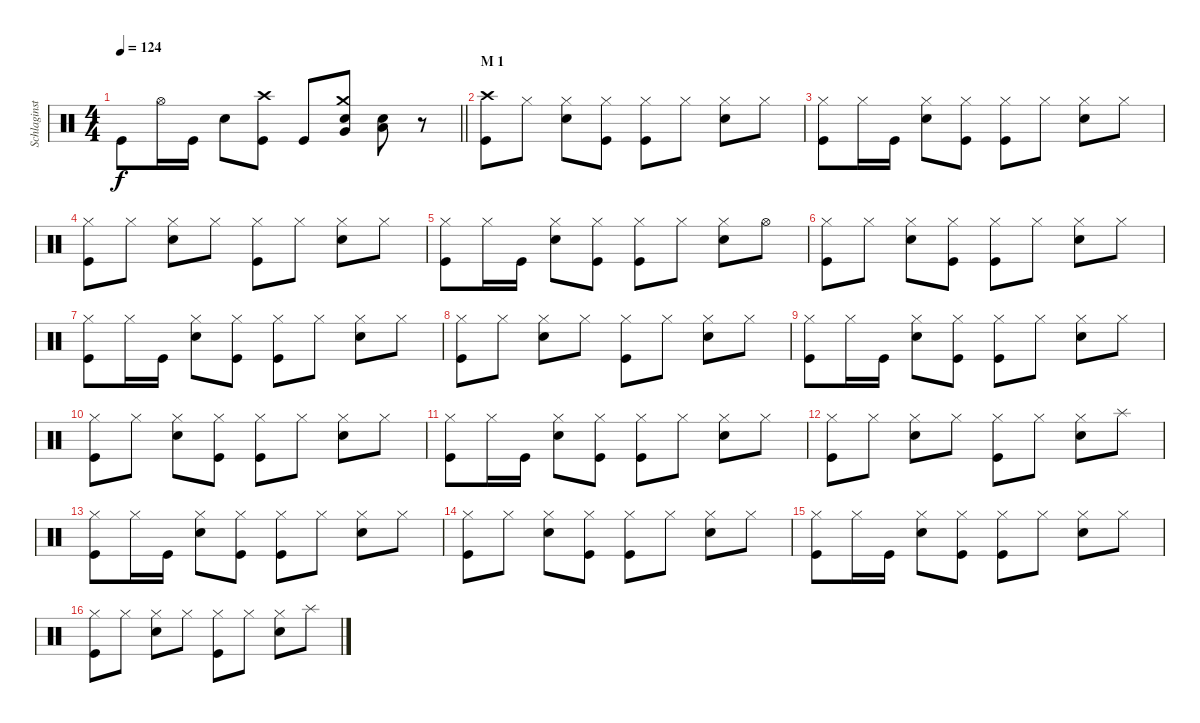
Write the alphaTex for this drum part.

\track ("Schlaginstrumente - Auswahl" "Schlaginst") {instrument percussion}
\staff {score}
\articulation defaults
\ts (4 4)
\tempo 124
\clef neutral
\barLineRight lightlight
\ks c "Kick (hit)".8{dy f} "Hi-Hat (open)".16 "Kick (hit)".16 "Snare (hit) 2".8
("Crash high (hit)" "Kick (hit)").8 "Kick (hit)".8 ("Crash medium (hit)" "Very Low Tom (hit)" "Snare (hit) 2").8 ("Low Floor Tom (hit)" "Snare (hit) 2").8 r.8 |
\section ("" "M 1")
("Crash high (hit)" "Kick (hit)").8 "Hi-Hat (closed)".8 ("Hi-Hat (closed)" "Snare (hit) 2").8 ("Hi-Hat (closed)" "Kick (hit)").8 ("Hi-Hat (closed)" "Kick (hit)").8 "Hi-Hat (closed)".8 ("Hi-Hat (closed)" "Snare (hit) 2").8 "Hi-Hat (closed)".8 |
("Hi-Hat (closed)" "Kick (hit)").8 "Hi-Hat (closed)".16 "Kick (hit)".16 ("Hi-Hat (closed)" "Snare (hit) 2").8 ("Hi-Hat (closed)" "Kick (hit)").8 ("Hi-Hat (closed)" "Kick (hit)").8 "Hi-Hat (closed)".8 ("Hi-Hat (closed)" "Snare (hit) 2").8 "Hi-Hat (closed)".8 |
("Hi-Hat (closed)" "Kick (hit)").8 "Hi-Hat (closed)".8 ("Hi-Hat (closed)" "Snare (hit) 2").8 "Hi-Hat (closed)".8 ("Hi-Hat (closed)" "Kick (hit)").8 "Hi-Hat (closed)".8 ("Hi-Hat (closed)" "Snare (hit) 2").8 "Hi-Hat (closed)".8 |
("Hi-Hat (closed)" "Kick (hit)").8 "Hi-Hat (closed)".16 "Kick (hit)".16 ("Hi-Hat (closed)" "Snare (hit) 2").8 ("Hi-Hat (closed)" "Kick (hit)").8 ("Hi-Hat (closed)" "Kick (hit)").8 "Hi-Hat (closed)".8 ("Hi-Hat (closed)" "Snare (hit) 2").8 "Hi-Hat (open)".8 |
("Hi-Hat (closed)" "Kick (hit)").8 "Hi-Hat (closed)".8 ("Hi-Hat (closed)" "Snare (hit) 2").8 ("Hi-Hat (closed)" "Kick (hit)").8 ("Hi-Hat (closed)" "Kick (hit)").8 "Hi-Hat (closed)".8 ("Hi-Hat (closed)" "Snare (hit) 2").8 "Hi-Hat (closed)".8 |
("Hi-Hat (closed)" "Kick (hit)").8 "Hi-Hat (closed)".16 "Kick (hit)".16 ("Hi-Hat (closed)" "Snare (hit) 2").8 ("Hi-Hat (closed)" "Kick (hit)").8 ("Hi-Hat (closed)" "Kick (hit)").8 "Hi-Hat (closed)".8 ("Hi-Hat (closed)" "Snare (hit) 2").8 "Hi-Hat (closed)".8 |
("Hi-Hat (closed)" "Kick (hit)").8 "Hi-Hat (closed)".8 ("Hi-Hat (closed)" "Snare (hit) 2").8 "Hi-Hat (closed)".8 ("Hi-Hat (closed)" "Kick (hit)").8 "Hi-Hat (closed)".8 ("Hi-Hat (closed)" "Snare (hit) 2").8 "Hi-Hat (closed)".8 |
("Hi-Hat (closed)" "Kick (hit)").8 "Hi-Hat (closed)".16 "Kick (hit)".16 ("Hi-Hat (closed)" "Snare (hit) 2").8 ("Hi-Hat (closed)" "Kick (hit)").8 ("Hi-Hat (closed)" "Kick (hit)").8 "Hi-Hat (closed)".8 ("Hi-Hat (closed)" "Snare (hit) 2").8 "Hi-Hat (closed)".8 |
("Hi-Hat (closed)" "Kick (hit)").8 "Hi-Hat (closed)".8 ("Hi-Hat (closed)" "Snare (hit) 2").8 ("Hi-Hat (closed)" "Kick (hit)").8 ("Hi-Hat (closed)" "Kick (hit)").8 "Hi-Hat (closed)".8 ("Hi-Hat (closed)" "Snare (hit) 2").8 "Hi-Hat (closed)".8 |
("Hi-Hat (closed)" "Kick (hit)").8 "Hi-Hat (closed)".16 "Kick (hit)".16 ("Hi-Hat (closed)" "Snare (hit) 2").8 ("Hi-Hat (closed)" "Kick (hit)").8 ("Hi-Hat (closed)" "Kick (hit)").8 "Hi-Hat (closed)".8 ("Hi-Hat (closed)" "Snare (hit) 2").8 "Hi-Hat (closed)".8 |
("Hi-Hat (closed)" "Kick (hit)").8 "Hi-Hat (closed)".8 ("Hi-Hat (closed)" "Snare (hit) 2").8 "Hi-Hat (closed)".8 ("Hi-Hat (closed)" "Kick (hit)").8 "Hi-Hat (closed)".8 ("Hi-Hat (closed)" "Snare (hit) 2").8 "Splash (hit)".8 |
("Hi-Hat (closed)" "Kick (hit)").8 "Hi-Hat (closed)".16 "Kick (hit)".16 ("Hi-Hat (closed)" "Snare (hit) 2").8 ("Hi-Hat (closed)" "Kick (hit)").8 ("Hi-Hat (closed)" "Kick (hit)").8 "Hi-Hat (closed)".8 ("Hi-Hat (closed)" "Snare (hit) 2").8 "Hi-Hat (closed)".8 |
("Hi-Hat (closed)" "Kick (hit)").8 "Hi-Hat (closed)".8 ("Hi-Hat (closed)" "Snare (hit) 2").8 ("Hi-Hat (closed)" "Kick (hit)").8 ("Hi-Hat (closed)" "Kick (hit)").8 "Hi-Hat (closed)".8 ("Hi-Hat (closed)" "Snare (hit) 2").8 "Hi-Hat (closed)".8 |
("Hi-Hat (closed)" "Kick (hit)").8 "Hi-Hat (closed)".16 "Kick (hit)".16 ("Hi-Hat (closed)" "Snare (hit) 2").8 ("Hi-Hat (closed)" "Kick (hit)").8 ("Hi-Hat (closed)" "Kick (hit)").8 "Hi-Hat (closed)".8 ("Hi-Hat (closed)" "Snare (hit) 2").8 "Hi-Hat (closed)".8 |
("Hi-Hat (closed)" "Kick (hit)").8 "Hi-Hat (closed)".8 ("Hi-Hat (closed)" "Snare (hit) 2").8 "Hi-Hat (closed)".8 ("Hi-Hat (closed)" "Kick (hit)").8 "Hi-Hat (closed)".8 ("Hi-Hat (closed)" "Snare (hit) 2").8 "Splash (hit)".8
